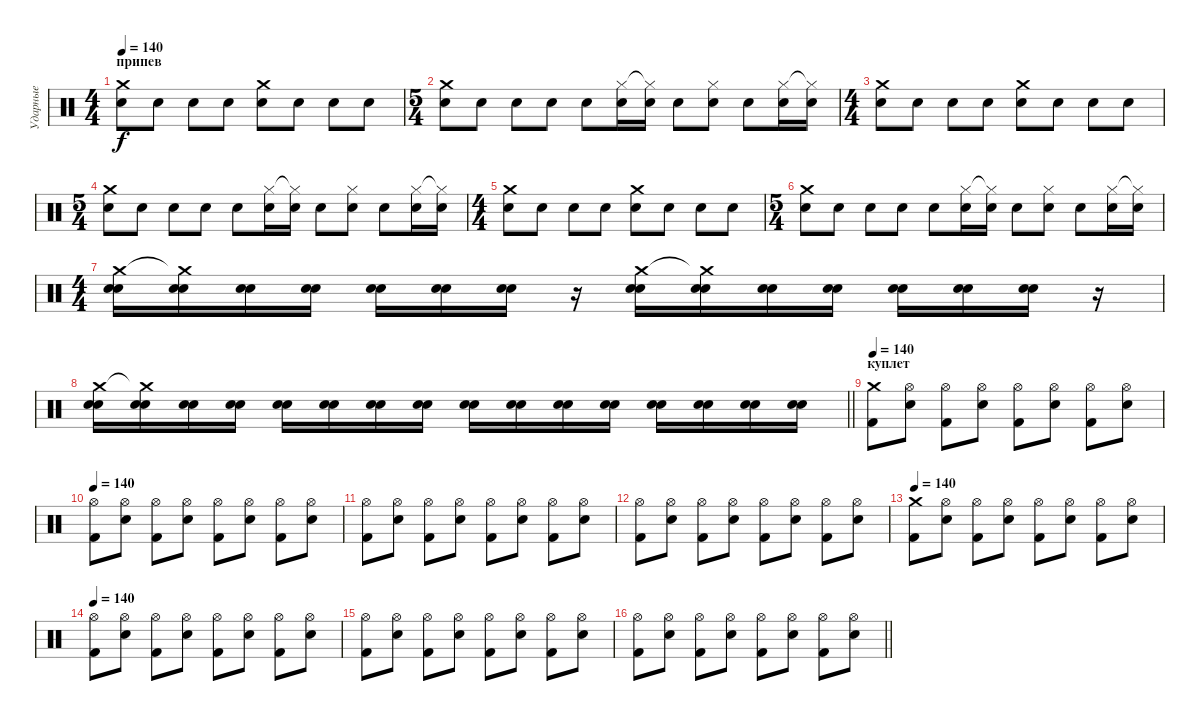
\track ("Ударные" "Ударные") {instrument percussion}
\staff {score}
\articulation defaults
\ts (4 4)
\section ("" "припев")
\tempo 140
\clef neutral
\ks c
("Snare (hit) 2" "Crash medium (hit)").8{dy f} "Snare (hit) 2".8 "Snare (hit) 2".8 "Snare (hit) 2".8 ("Snare (hit) 2" "Crash medium (hit)").8 "Snare (hit) 2".8 "Snare (hit) 2".8 "Snare (hit) 2".8 |
\ts (5 4)
("Snare (hit) 2" "Crash medium (hit)").8 "Snare (hit) 2".8 "Snare (hit) 2".8 "Snare (hit) 2".8 "Electric Snare (hit)".8 ("Hi-Hat (closed)" "Electric Snare (hit)").16 ("Hi-Hat (closed)"{t} "Snare (hit) 2").16 "Snare (hit) 2".8 ("Hi-Hat (closed)" "Snare (hit) 2").8 "Snare (hit) 2".8 ("Hi-Hat (closed)" "Electric Snare (hit)").16 ("Hi-Hat (closed)"{t} "Snare (hit) 2").16 |
\ts (4 4)
("Snare (hit) 2" "Crash medium (hit)").8 "Snare (hit) 2".8 "Snare (hit) 2".8 "Snare (hit) 2".8 ("Snare (hit) 2" "Crash medium (hit)").8 "Snare (hit) 2".8 "Snare (hit) 2".8 "Snare (hit) 2".8 |
\ts (5 4)
("Snare (hit) 2" "Crash medium (hit)").8 "Snare (hit) 2".8 "Snare (hit) 2".8 "Snare (hit) 2".8 "Electric Snare (hit)".8 ("Hi-Hat (closed)" "Electric Snare (hit)").16 ("Hi-Hat (closed)"{t} "Snare (hit) 2").16 "Snare (hit) 2".8 ("Hi-Hat (closed)" "Snare (hit) 2").8 "Snare (hit) 2".8 ("Hi-Hat (closed)" "Electric Snare (hit)").16 ("Hi-Hat (closed)"{t} "Snare (hit) 2").16 |
\ts (4 4)
("Snare (hit) 2" "Crash medium (hit)").8 "Snare (hit) 2".8 "Snare (hit) 2".8 "Snare (hit) 2".8 ("Snare (hit) 2" "Crash medium (hit)").8 "Snare (hit) 2".8 "Snare (hit) 2".8 "Snare (hit) 2".8 |
\ts (5 4)
("Snare (hit) 2" "Crash medium (hit)").8 "Snare (hit) 2".8 "Snare (hit) 2".8 "Snare (hit) 2".8 "Electric Snare (hit)".8 ("Hi-Hat (closed)" "Electric Snare (hit)").16 ("Hi-Hat (closed)"{t} "Snare (hit) 2").16 "Snare (hit) 2".8 ("Hi-Hat (closed)" "Snare (hit) 2").8 "Snare (hit) 2".8 ("Hi-Hat (closed)" "Electric Snare (hit)").16 ("Hi-Hat (closed)"{t} "Snare (hit) 2").16 |
\ts (4 4)
("Electric Snare (hit)" "Snare (hit) 2" "Crash medium (hit)").16 ("Electric Snare (hit)" "Snare (hit) 2" "Crash medium (hit)"{t}).16 ("Electric Snare (hit)" "Snare (hit) 2").16 ("Electric Snare (hit)" "Snare (hit) 2").16 ("Electric Snare (hit)" "Snare (hit) 2").16 ("Electric Snare (hit)" "Snare (hit) 2").16 ("Electric Snare (hit)" "Snare (hit) 2").16 r.16 ("Electric Snare (hit)" "Snare (hit) 2" "Crash medium (hit)").16 ("Electric Snare (hit)" "Snare (hit) 2" "Crash medium (hit)"{t}).16 ("Electric Snare (hit)" "Snare (hit) 2").16 ("Electric Snare (hit)" "Snare (hit) 2").16 ("Electric Snare (hit)" "Snare (hit) 2").16 ("Electric Snare (hit)" "Snare (hit) 2").16 ("Electric Snare (hit)" "Snare (hit) 2").16 r.16 |
\barLineRight lightlight
("Electric Snare (hit)" "Snare (hit) 2" "Crash medium (hit)").16 ("Electric Snare (hit)" "Snare (hit) 2" "Crash medium (hit)"{t}).16 ("Electric Snare (hit)" "Snare (hit) 2").16 ("Electric Snare (hit)" "Snare (hit) 2").16 ("Electric Snare (hit)" "Snare (hit) 2").16 ("Electric Snare (hit)" "Snare (hit) 2").16 ("Electric Snare (hit)" "Snare (hit) 2").16 ("Electric Snare (hit)" "Snare (hit) 2").16 ("Electric Snare (hit)" "Snare (hit) 2").16 ("Electric Snare (hit)" "Snare (hit) 2").16 ("Electric Snare (hit)" "Snare (hit) 2").16 ("Electric Snare (hit)" "Snare (hit) 2").16 ("Electric Snare (hit)" "Snare (hit) 2").16 ("Electric Snare (hit)" "Snare (hit) 2").16 ("Electric Snare (hit)" "Snare (hit) 2").16 ("Electric Snare (hit)" "Snare (hit) 2").16 |
\section ("" "куплет")
\tempo 140
("Kick (hit) 2" "Crash medium (hit)").8 ("Electric Snare (hit)" "Hi-Hat (open)").8 ("Kick (hit) 2" "Hi-Hat (open)").8 ("Electric Snare (hit)" "Hi-Hat (open)").8 ("Kick (hit) 2" "Hi-Hat (open)").8 ("Electric Snare (hit)" "Hi-Hat (open)").8 ("Kick (hit) 2" "Hi-Hat (open)").8 ("Electric Snare (hit)" "Hi-Hat (open)").8 |
\tempo 140
("Kick (hit) 2" "Hi-Hat (open)").8 ("Electric Snare (hit)" "Hi-Hat (open)").8 ("Kick (hit) 2" "Hi-Hat (open)").8 ("Electric Snare (hit)" "Hi-Hat (open)").8 ("Kick (hit) 2" "Hi-Hat (open)").8 ("Electric Snare (hit)" "Hi-Hat (open)").8 ("Kick (hit) 2" "Hi-Hat (open)").8 ("Electric Snare (hit)" "Hi-Hat (open)").8 |
("Kick (hit) 2" "Hi-Hat (open)").8 ("Electric Snare (hit)" "Hi-Hat (open)").8 ("Kick (hit) 2" "Hi-Hat (open)").8 ("Electric Snare (hit)" "Hi-Hat (open)").8 ("Kick (hit) 2" "Hi-Hat (open)").8 ("Electric Snare (hit)" "Hi-Hat (open)").8 ("Kick (hit) 2" "Hi-Hat (open)").8 ("Electric Snare (hit)" "Hi-Hat (open)").8 |
("Kick (hit) 2" "Hi-Hat (open)").8 ("Electric Snare (hit)" "Hi-Hat (open)").8 ("Kick (hit) 2" "Hi-Hat (open)").8 ("Electric Snare (hit)" "Hi-Hat (open)").8 ("Kick (hit) 2" "Hi-Hat (open)").8 ("Electric Snare (hit)" "Hi-Hat (open)").8 ("Kick (hit) 2" "Hi-Hat (open)").8 ("Electric Snare (hit)" "Hi-Hat (open)").8 |
\tempo 140
("Kick (hit) 2" "Crash medium (hit)").8 ("Electric Snare (hit)" "Hi-Hat (open)").8 ("Kick (hit) 2" "Hi-Hat (open)").8 ("Electric Snare (hit)" "Hi-Hat (open)").8 ("Kick (hit) 2" "Hi-Hat (open)").8 ("Electric Snare (hit)" "Hi-Hat (open)").8 ("Kick (hit) 2" "Hi-Hat (open)").8 ("Electric Snare (hit)" "Hi-Hat (open)").8 |
\tempo 140
("Kick (hit) 2" "Hi-Hat (open)").8 ("Electric Snare (hit)" "Hi-Hat (open)").8 ("Kick (hit) 2" "Hi-Hat (open)").8 ("Electric Snare (hit)" "Hi-Hat (open)").8 ("Kick (hit) 2" "Hi-Hat (open)").8 ("Electric Snare (hit)" "Hi-Hat (open)").8 ("Kick (hit) 2" "Hi-Hat (open)").8 ("Electric Snare (hit)" "Hi-Hat (open)").8 |
("Kick (hit) 2" "Hi-Hat (open)").8 ("Electric Snare (hit)" "Hi-Hat (open)").8 ("Kick (hit) 2" "Hi-Hat (open)").8 ("Electric Snare (hit)" "Hi-Hat (open)").8 ("Kick (hit) 2" "Hi-Hat (open)").8 ("Electric Snare (hit)" "Hi-Hat (open)").8 ("Kick (hit) 2" "Hi-Hat (open)").8 ("Electric Snare (hit)" "Hi-Hat (open)").8 |
\barLineRight lightlight
("Kick (hit) 2" "Hi-Hat (open)").8 ("Electric Snare (hit)" "Hi-Hat (open)").8 ("Kick (hit) 2" "Hi-Hat (open)").8 ("Electric Snare (hit)" "Hi-Hat (open)").8 ("Kick (hit) 2" "Hi-Hat (open)").8 ("Electric Snare (hit)" "Hi-Hat (open)").8 ("Kick (hit) 2" "Hi-Hat (open)").8 ("Electric Snare (hit)" "Hi-Hat (open)").8
